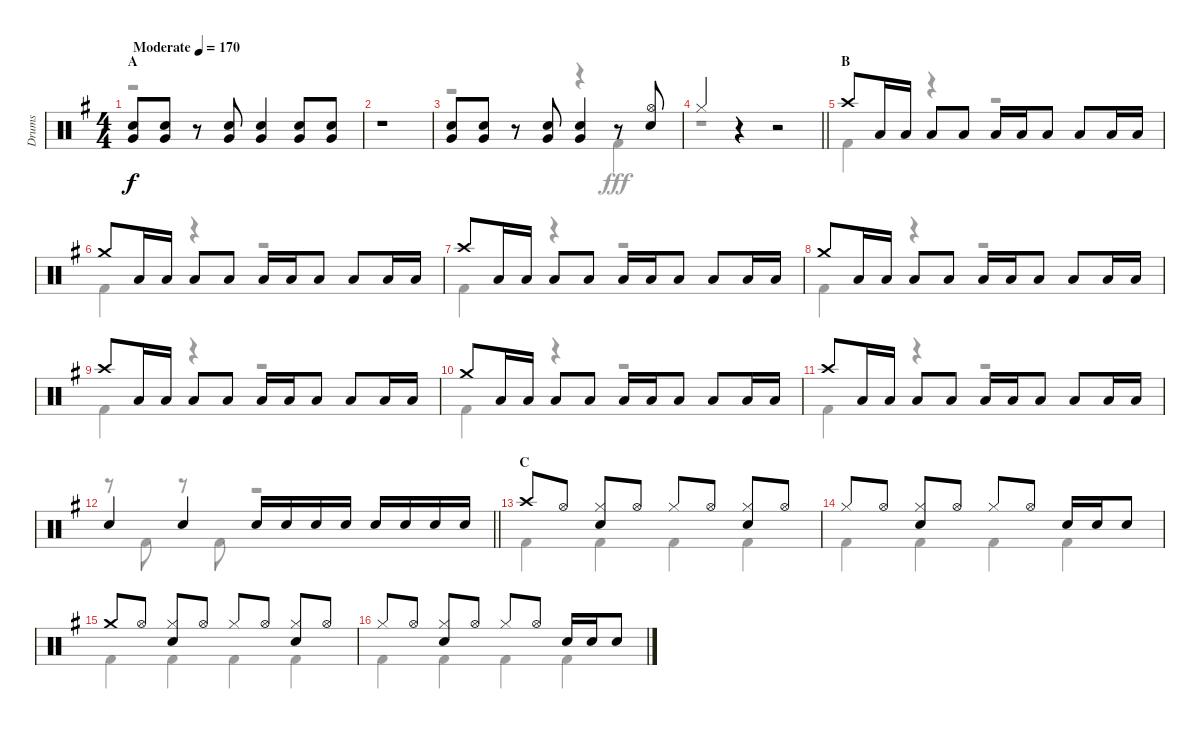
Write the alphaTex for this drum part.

\track ("Drums" "Drums") {instrument percussion}
\staff {score}
\articulation defaults
\voice
\ts (4 4)
\section ("" "A")
\tempo (170 "Moderate")
\clef neutral
\ks g
("Snare (hit) 2" "Very Low Tom (hit)").8{dy f} ("Snare (hit) 2" "Very Low Tom (hit)").8 r.8 ("Snare (hit) 2" "Very Low Tom (hit)").8 ("Snare (hit) 2" "Very Low Tom (hit)").4 ("Snare (hit) 2" "Very Low Tom (hit)").8 ("Snare (hit) 2" "Very Low Tom (hit)").8 |
r.1 |
("Snare (hit) 2" "Very Low Tom (hit)").8 ("Snare (hit) 2" "Very Low Tom (hit)").8 r.8 ("Snare (hit) 2" "Very Low Tom (hit)").8 ("Snare (hit) 2" "Very Low Tom (hit)").4 r.8 ("Hi-Hat (open)" "Snare (hit) 2").8 |
\barLineRight lightlight "Hi-Hat (closed)".4
r.4 r.2 |
\section ("" "B")
"Crash high (hit)".8 "Low Tom (hit)".16 "Low Tom (hit)".16 "Low Tom (hit)".8 "Low Tom (hit)".8 "Low Tom (hit)".16 "Low Tom (hit)".16 "Low Tom (hit)".8 "Low Tom (hit)".8 "Low Tom (hit)".16 "Low Tom (hit)".16 |
"Crash medium (hit)".8 "Low Tom (hit)".16 "Low Tom (hit)".16 "Low Tom (hit)".8 "Low Tom (hit)".8 "Low Tom (hit)".16 "Low Tom (hit)".16 "Low Tom (hit)".8 "Low Tom (hit)".8 "Low Tom (hit)".16 "Low Tom (hit)".16 |
"Crash high (hit)".8 "Low Tom (hit)".16 "Low Tom (hit)".16 "Low Tom (hit)".8 "Low Tom (hit)".8 "Low Tom (hit)".16 "Low Tom (hit)".16 "Low Tom (hit)".8 "Low Tom (hit)".8 "Low Tom (hit)".16 "Low Tom (hit)".16 |
"Crash medium (hit)".8 "Low Tom (hit)".16 "Low Tom (hit)".16 "Low Tom (hit)".8 "Low Tom (hit)".8 "Low Tom (hit)".16 "Low Tom (hit)".16 "Low Tom (hit)".8 "Low Tom (hit)".8 "Low Tom (hit)".16 "Low Tom (hit)".16 |
"Crash high (hit)".8 "Low Tom (hit)".16 "Low Tom (hit)".16 "Low Tom (hit)".8 "Low Tom (hit)".8 "Low Tom (hit)".16 "Low Tom (hit)".16 "Low Tom (hit)".8 "Low Tom (hit)".8 "Low Tom (hit)".16 "Low Tom (hit)".16 |
"Crash medium (hit)".8 "Low Tom (hit)".16 "Low Tom (hit)".16 "Low Tom (hit)".8 "Low Tom (hit)".8 "Low Tom (hit)".16 "Low Tom (hit)".16 "Low Tom (hit)".8 "Low Tom (hit)".8 "Low Tom (hit)".16 "Low Tom (hit)".16 |
"Crash high (hit)".8 "Low Tom (hit)".16 "Low Tom (hit)".16 "Low Tom (hit)".8 "Low Tom (hit)".8 "Low Tom (hit)".16 "Low Tom (hit)".16 "Low Tom (hit)".8 "Low Tom (hit)".8 "Low Tom (hit)".16 "Low Tom (hit)".16 |
\barLineRight lightlight "Snare (hit) 2".4 "Snare (hit) 2".4 "Snare (hit) 2".16 "Snare (hit) 2".16 "Snare (hit) 2".16 "Snare (hit) 2".16 "Snare (hit) 2".16 "Snare (hit) 2".16 "Snare (hit) 2".16 "Snare (hit) 2".16
|
\section ("" "C")
"Crash high (hit)".8 "Hi-Hat (open)".8 ("Hi-Hat (closed)" "Snare (hit) 2").8 "Hi-Hat (open)".8 "Hi-Hat (closed)".8 "Hi-Hat (open)".8 ("Hi-Hat (closed)" "Snare (hit) 2").8 "Hi-Hat (open)".8 |
"Hi-Hat (closed)".8 "Hi-Hat (open)".8 ("Hi-Hat (closed)" "Snare (hit) 2").8 "Hi-Hat (open)".8 "Hi-Hat (closed)".8 "Hi-Hat (open)".8 "Snare (hit) 2".16 "Snare (hit) 2".16 "Snare (hit) 2".8 |
"Crash medium (hit)".8 "Hi-Hat (open)".8 ("Hi-Hat (closed)" "Snare (hit) 2").8 "Hi-Hat (open)".8 "Hi-Hat (closed)".8 "Hi-Hat (open)".8 ("Hi-Hat (closed)" "Snare (hit) 2").8 "Hi-Hat (open)".8 |
"Hi-Hat (closed)".8 "Hi-Hat (open)".8 ("Hi-Hat (closed)" "Snare (hit) 2").8 "Hi-Hat (open)".8 "Hi-Hat (closed)".8 "Hi-Hat (open)".8 "Snare (hit) 2".16 "Snare (hit) 2".16 "Snare (hit) 2".8
\voice
\clef neutral
\ottava regular
\simile none
\ks g
r.1{dy fff} |
r.1 |
r.2 r.4 "Kick (hit) 2".4 |
\barLineRight lightlight
r.1 |
"Kick (hit) 2".4 r.4 r.2 |
"Kick (hit) 2".4 r.4 r.2 |
"Kick (hit) 2".4 r.4 r.2 |
"Kick (hit) 2".4 r.4 r.2 |
"Kick (hit) 2".4 r.4 r.2 |
"Kick (hit) 2".4 r.4 r.2 |
"Kick (hit) 2".4 r.4 r.2 |
\barLineRight lightlight
r.8 "Kick (hit) 2".8 r.8 "Kick (hit) 2".8 r.2 |
"Kick (hit) 2".4 "Kick (hit) 2".4 "Kick (hit) 2".4 "Kick (hit) 2".4 |
"Kick (hit) 2".4 "Kick (hit) 2".4 "Kick (hit) 2".4 "Kick (hit) 2".4 |
"Kick (hit) 2".4 "Kick (hit) 2".4 "Kick (hit) 2".4 "Kick (hit) 2".4 |
"Kick (hit) 2".4 "Kick (hit) 2".4 "Kick (hit) 2".4 "Kick (hit) 2".4
